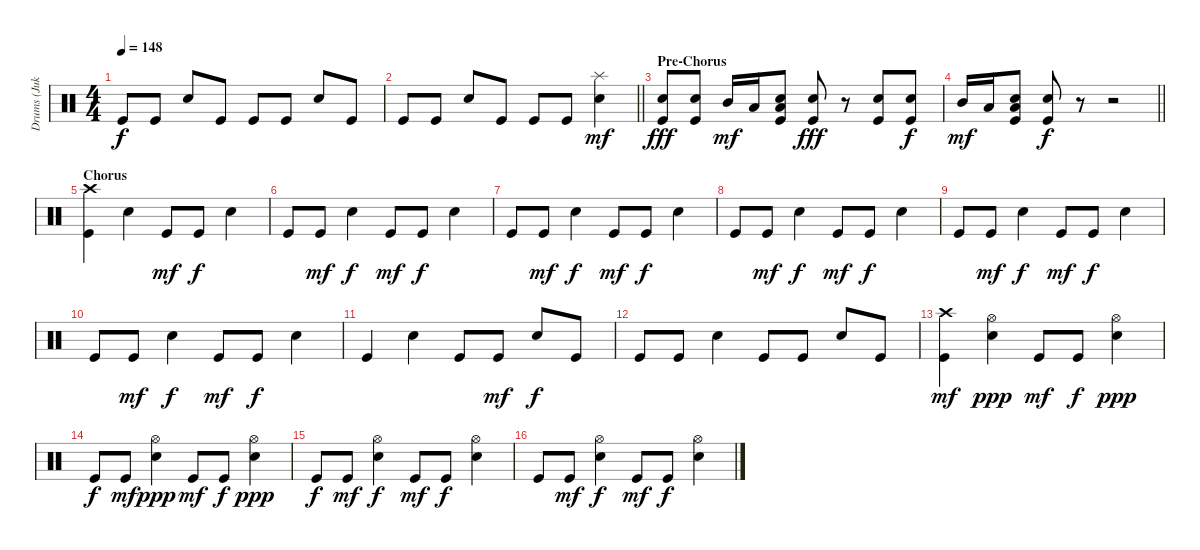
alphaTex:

\track ("Drums (Jukka)" "Drums (Juk") {instrument percussion}
\staff {score}
\articulation defaults
\ts (4 4)
\tempo 148
\clef neutral
\ks c "Kick (hit)".8{dy f} "Kick (hit)".8 "Snare (hit) 2".8 "Kick (hit)".8 "Kick (hit)".8 "Kick (hit)".8 "Snare (hit) 2".8 "Kick (hit)".8
|
\barLineRight lightlight "Kick (hit)".8 "Kick (hit)".8 "Snare (hit) 2".8 "Kick (hit)".8 "Kick (hit)".8 "Kick (hit)".8
("Snare (hit) 2" "Splash (hit)").4{dy mf} |
\section ("" "Pre-Chorus")
("Kick (hit)" "Snare (hit) 2").8{dy fff} ("Kick (hit)" "Snare (hit) 2").8 "Mid Tom (hit)".16{dy mf} "Low Tom (hit)".16 ("Kick (hit)" "Snare (hit) 2" "Low Floor Tom (hit)").8 ("Kick (hit)" "Snare (hit) 2").8{dy fff} r.8 ("Kick (hit)" "Snare (hit) 2").8 ("Kick (hit)" "Snare (hit) 2").8{dy f} |
\barLineRight lightlight "Mid Tom (hit)".16{dy mf} "Low Tom (hit)".16
("Kick (hit)" "Snare (hit) 2" "Low Floor Tom (hit)").8 ("Kick (hit)" "Snare (hit) 2").8{dy f} r.8 r.2 |
\section ("" "Chorus")
("Kick (hit)" "Crash high (hit)").4 "Snare (hit) 2".4 "Kick (hit)".8{dy mf} "Kick (hit)".8{dy f} "Snare (hit) 2".4 |
"Kick (hit)".8 "Kick (hit)".8{dy mf} "Snare (hit) 2".4{dy f} "Kick (hit)".8{dy mf} "Kick (hit)".8{dy f} "Snare (hit) 2".4 |
"Kick (hit)".8 "Kick (hit)".8{dy mf} "Snare (hit) 2".4{dy f} "Kick (hit)".8{dy mf} "Kick (hit)".8{dy f} "Snare (hit) 2".4 |
"Kick (hit)".8 "Kick (hit)".8{dy mf} "Snare (hit) 2".4{dy f} "Kick (hit)".8{dy mf} "Kick (hit)".8{dy f} "Snare (hit) 2".4 |
"Kick (hit)".8 "Kick (hit)".8{dy mf} "Snare (hit) 2".4{dy f} "Kick (hit)".8{dy mf} "Kick (hit)".8{dy f} "Snare (hit) 2".4 |
"Kick (hit)".8 "Kick (hit)".8{dy mf} "Snare (hit) 2".4{dy f} "Kick (hit)".8{dy mf} "Kick (hit)".8{dy f} "Snare (hit) 2".4 |
"Kick (hit)".4 "Snare (hit) 2".4 "Kick (hit)".8 "Kick (hit)".8{dy mf} "Snare (hit) 2".8{dy f} "Kick (hit)".8 |
"Kick (hit)".8 "Kick (hit)".8 "Snare (hit) 2".4 "Kick (hit)".8 "Kick (hit)".8 "Snare (hit) 2".8 "Kick (hit)".8 |
("Kick (hit)" "Crash high (hit)").4{dy mf} ("Snare (hit) 2" "Hi-Hat (open)").4{dy ppp} "Kick (hit)".8{dy mf} "Kick (hit)".8{dy f} ("Snare (hit) 2" "Hi-Hat (open)").4{dy ppp} |
"Kick (hit)".8{dy f} "Kick (hit)".8{dy mf} ("Snare (hit) 2" "Hi-Hat (open)").4{dy ppp} "Kick (hit)".8{dy mf} "Kick (hit)".8{dy f} ("Snare (hit) 2" "Hi-Hat (open)").4{dy ppp} |
"Kick (hit)".8{dy f} "Kick (hit)".8{dy mf} ("Snare (hit) 2" "Hi-Hat (open)").4{dy f} "Kick (hit)".8{dy mf} "Kick (hit)".8{dy f} ("Snare (hit) 2" "Hi-Hat (open)").4 |
"Kick (hit)".8 "Kick (hit)".8{dy mf} ("Snare (hit) 2" "Hi-Hat (open)").4{dy f} "Kick (hit)".8{dy mf} "Kick (hit)".8{dy f} ("Snare (hit) 2" "Hi-Hat (open)").4
